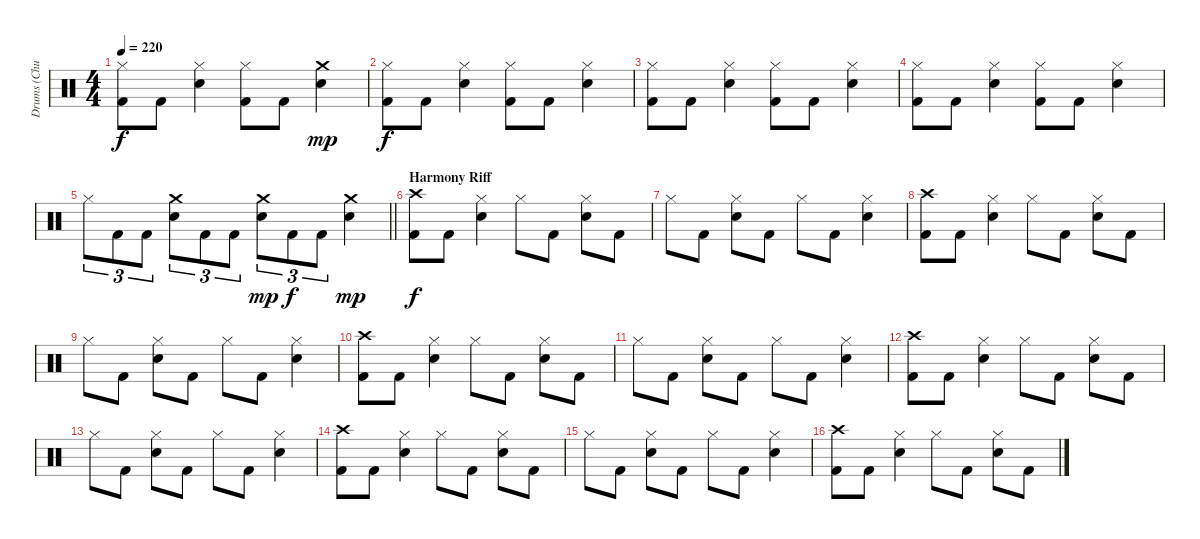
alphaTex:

\track ("Drums (Chuck Behler)" "Drums (Chu") {instrument percussion}
\staff {score}
\articulation defaults
\ts (4 4)
\tempo 220
\clef neutral
\ks c
("Hi-Hat (closed)" "Kick (hit) 2").8{dy f} "Kick (hit) 2".8 ("Hi-Hat (closed)" "Snare (hit) 2").4 ("Hi-Hat (closed)" "Kick (hit) 2").8 "Kick (hit) 2".8 ("Crash medium (hit)" "Snare (hit) 2").4{dy mp} |
("Hi-Hat (closed)" "Kick (hit) 2").8{dy f} "Kick (hit) 2".8 ("Hi-Hat (closed)" "Snare (hit) 2").4 ("Hi-Hat (closed)" "Kick (hit) 2").8 "Kick (hit) 2".8 ("Hi-Hat (closed)" "Snare (hit) 2").4 |
("Hi-Hat (closed)" "Kick (hit) 2").8 "Kick (hit) 2".8 ("Hi-Hat (closed)" "Snare (hit) 2").4 ("Hi-Hat (closed)" "Kick (hit) 2").8 "Kick (hit) 2".8 ("Hi-Hat (closed)" "Snare (hit) 2").4 |
("Hi-Hat (closed)" "Kick (hit) 2").8 "Kick (hit) 2".8 ("Hi-Hat (closed)" "Snare (hit) 2").4 ("Hi-Hat (closed)" "Kick (hit) 2").8 "Kick (hit) 2".8 ("Hi-Hat (closed)" "Snare (hit) 2").4 |
\barLineRight lightlight "Hi-Hat (closed)".8{tu (3 2)} "Kick (hit) 2".8{tu (3 2)} "Kick (hit) 2".8{tu (3 2)}
("Crash medium (hit)" "Snare (hit) 2").8{tu (3 2)} "Kick (hit) 2".8{tu (3 2)} "Kick (hit) 2".8{tu (3 2)} ("Crash medium (hit)" "Snare (hit) 2").8{tu (3 2) dy mp} "Kick (hit) 2".8{tu (3 2) dy f} "Kick (hit) 2".8{tu (3 2)} ("Crash medium (hit)" "Snare (hit) 2").4{dy mp} |
\section ("" "Harmony Riff")
("Crash high (hit)" "Kick (hit) 2").8{dy f} "Kick (hit) 2".8 ("Hi-Hat (closed)" "Snare (hit) 2").4 "Hi-Hat (closed)".8 "Kick (hit) 2".8 ("Hi-Hat (closed)" "Snare (hit) 2").8 "Kick (hit) 2".8 |
"Hi-Hat (closed)".8 "Kick (hit) 2".8 ("Hi-Hat (closed)" "Snare (hit) 2").8 "Kick (hit) 2".8 "Hi-Hat (closed)".8 "Kick (hit) 2".8 ("Hi-Hat (closed)" "Snare (hit) 2").4 |
("Crash high (hit)" "Kick (hit) 2").8 "Kick (hit) 2".8 ("Hi-Hat (closed)" "Snare (hit) 2").4 "Hi-Hat (closed)".8 "Kick (hit) 2".8 ("Hi-Hat (closed)" "Snare (hit) 2").8 "Kick (hit) 2".8 |
"Hi-Hat (closed)".8 "Kick (hit) 2".8 ("Hi-Hat (closed)" "Snare (hit) 2").8 "Kick (hit) 2".8 "Hi-Hat (closed)".8 "Kick (hit) 2".8 ("Hi-Hat (closed)" "Snare (hit) 2").4 |
("Crash high (hit)" "Kick (hit) 2").8 "Kick (hit) 2".8 ("Hi-Hat (closed)" "Snare (hit) 2").4 "Hi-Hat (closed)".8 "Kick (hit) 2".8 ("Hi-Hat (closed)" "Snare (hit) 2").8 "Kick (hit) 2".8 |
"Hi-Hat (closed)".8 "Kick (hit) 2".8 ("Hi-Hat (closed)" "Snare (hit) 2").8 "Kick (hit) 2".8 "Hi-Hat (closed)".8 "Kick (hit) 2".8 ("Hi-Hat (closed)" "Snare (hit) 2").4 |
("Crash high (hit)" "Kick (hit) 2").8 "Kick (hit) 2".8 ("Hi-Hat (closed)" "Snare (hit) 2").4 "Hi-Hat (closed)".8 "Kick (hit) 2".8 ("Hi-Hat (closed)" "Snare (hit) 2").8 "Kick (hit) 2".8 |
"Hi-Hat (closed)".8 "Kick (hit) 2".8 ("Hi-Hat (closed)" "Snare (hit) 2").8 "Kick (hit) 2".8 "Hi-Hat (closed)".8 "Kick (hit) 2".8 ("Hi-Hat (closed)" "Snare (hit) 2").4 |
("Crash high (hit)" "Kick (hit) 2").8 "Kick (hit) 2".8 ("Hi-Hat (closed)" "Snare (hit) 2").4 "Hi-Hat (closed)".8 "Kick (hit) 2".8 ("Hi-Hat (closed)" "Snare (hit) 2").8 "Kick (hit) 2".8 |
"Hi-Hat (closed)".8 "Kick (hit) 2".8 ("Hi-Hat (closed)" "Snare (hit) 2").8 "Kick (hit) 2".8 "Hi-Hat (closed)".8 "Kick (hit) 2".8 ("Hi-Hat (closed)" "Snare (hit) 2").4 |
("Crash high (hit)" "Kick (hit) 2").8 "Kick (hit) 2".8 ("Hi-Hat (closed)" "Snare (hit) 2").4 "Hi-Hat (closed)".8 "Kick (hit) 2".8 ("Hi-Hat (closed)" "Snare (hit) 2").8 "Kick (hit) 2".8
